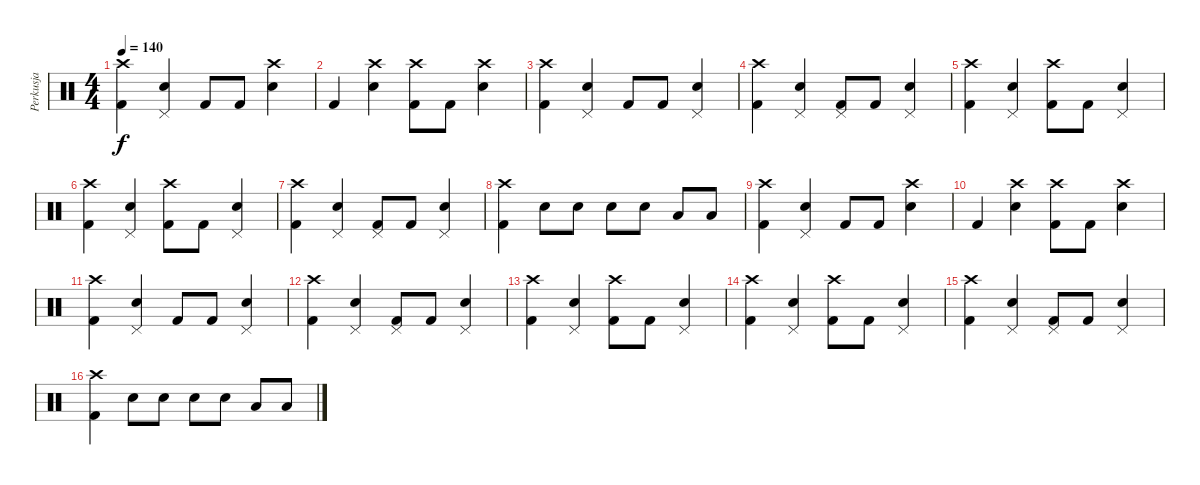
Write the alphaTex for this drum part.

\track ("Perkusja" "Perkusja") {instrument percussion}
\staff {score}
\articulation defaults
\ts (4 4)
\tempo 140
\clef neutral
\ks c
("Crash high (hit)" "Kick (hit) 2").4{dy f} ("Pedal Hi-Hat (hit)" "Snare (hit) 2").4 "Kick (hit) 2".8 "Kick (hit) 2".8 ("Crash high (hit)" "Snare (hit) 2").4 |
"Kick (hit) 2".4 ("Crash high (hit)" "Snare (hit) 2").4 ("Crash high (hit)" "Kick (hit) 2").8 "Kick (hit) 2".8 ("Crash high (hit)" "Snare (hit) 2").4 |
("Crash high (hit)" "Kick (hit) 2").4 ("Pedal Hi-Hat (hit)" "Snare (hit) 2").4 "Kick (hit) 2".8 "Kick (hit) 2".8 ("Pedal Hi-Hat (hit)" "Snare (hit) 2").4 |
("Crash high (hit)" "Kick (hit) 2").4 ("Pedal Hi-Hat (hit)" "Snare (hit) 2").4 ("Pedal Hi-Hat (hit)" "Kick (hit) 2").8 "Kick (hit) 2".8 ("Pedal Hi-Hat (hit)" "Snare (hit) 2").4 |
("Crash high (hit)" "Kick (hit) 2").4 ("Pedal Hi-Hat (hit)" "Snare (hit) 2").4 ("Crash high (hit)" "Kick (hit) 2").8 "Kick (hit) 2".8 ("Pedal Hi-Hat (hit)" "Snare (hit) 2").4 |
("Crash high (hit)" "Kick (hit) 2").4 ("Pedal Hi-Hat (hit)" "Snare (hit) 2").4 ("Crash high (hit)" "Kick (hit) 2").8 "Kick (hit) 2".8 ("Pedal Hi-Hat (hit)" "Snare (hit) 2").4 |
("Crash high (hit)" "Kick (hit) 2").4 ("Pedal Hi-Hat (hit)" "Snare (hit) 2").4 ("Pedal Hi-Hat (hit)" "Kick (hit) 2").8 "Kick (hit) 2".8 ("Pedal Hi-Hat (hit)" "Snare (hit) 2").4 |
("Crash high (hit)" "Kick (hit) 2").4 "Snare (hit) 2".8 "Snare (hit) 2".8 "Snare (hit) 2".8 "Snare (hit) 2".8 "Low Tom (hit)".8 "Low Tom (hit)".8 |
("Crash high (hit)" "Kick (hit) 2").4 ("Pedal Hi-Hat (hit)" "Snare (hit) 2").4 "Kick (hit) 2".8 "Kick (hit) 2".8 ("Crash high (hit)" "Snare (hit) 2").4 |
"Kick (hit) 2".4 ("Crash high (hit)" "Snare (hit) 2").4 ("Crash high (hit)" "Kick (hit) 2").8 "Kick (hit) 2".8 ("Crash high (hit)" "Snare (hit) 2").4 |
("Crash high (hit)" "Kick (hit) 2").4 ("Pedal Hi-Hat (hit)" "Snare (hit) 2").4 "Kick (hit) 2".8 "Kick (hit) 2".8 ("Pedal Hi-Hat (hit)" "Snare (hit) 2").4 |
("Crash high (hit)" "Kick (hit) 2").4 ("Pedal Hi-Hat (hit)" "Snare (hit) 2").4 ("Pedal Hi-Hat (hit)" "Kick (hit) 2").8 "Kick (hit) 2".8 ("Pedal Hi-Hat (hit)" "Snare (hit) 2").4 |
("Crash high (hit)" "Kick (hit) 2").4 ("Pedal Hi-Hat (hit)" "Snare (hit) 2").4 ("Crash high (hit)" "Kick (hit) 2").8 "Kick (hit) 2".8 ("Pedal Hi-Hat (hit)" "Snare (hit) 2").4 |
("Crash high (hit)" "Kick (hit) 2").4 ("Pedal Hi-Hat (hit)" "Snare (hit) 2").4 ("Crash high (hit)" "Kick (hit) 2").8 "Kick (hit) 2".8 ("Pedal Hi-Hat (hit)" "Snare (hit) 2").4 |
("Crash high (hit)" "Kick (hit) 2").4 ("Pedal Hi-Hat (hit)" "Snare (hit) 2").4 ("Pedal Hi-Hat (hit)" "Kick (hit) 2").8 "Kick (hit) 2".8 ("Pedal Hi-Hat (hit)" "Snare (hit) 2").4 |
("Crash high (hit)" "Kick (hit) 2").4 "Snare (hit) 2".8 "Snare (hit) 2".8 "Snare (hit) 2".8 "Snare (hit) 2".8 "Low Tom (hit)".8 "Low Tom (hit)".8
